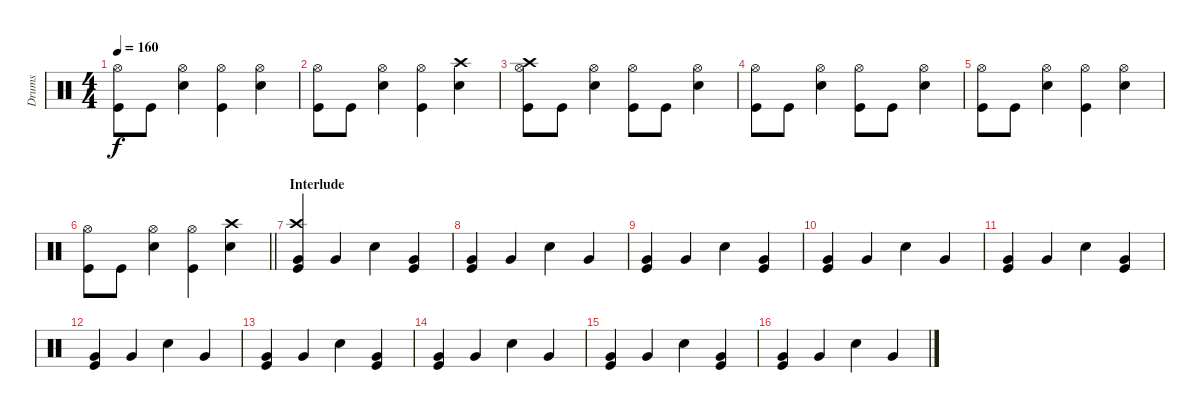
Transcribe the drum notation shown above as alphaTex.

\track ("Drums" "Drums") {instrument percussion}
\staff {score}
\articulation defaults
\ts (4 4)
\tempo 160
\clef neutral
\ks c
("Hi-Hat (open)" "Kick (hit)").8{dy f} "Kick (hit)".8 ("Hi-Hat (open)" "Snare (hit) 2").4 ("Hi-Hat (open)" "Kick (hit)").4 ("Hi-Hat (open)" "Snare (hit) 2").4 |
("Hi-Hat (open)" "Kick (hit)").8 "Kick (hit)".8 ("Hi-Hat (open)" "Snare (hit) 2").4 ("Hi-Hat (open)" "Kick (hit)").4 ("Crash high (hit)" "Snare (hit) 2").4 |
("Crash high (hit)" "Hi-Hat (open)" "Kick (hit)").8 "Kick (hit)".8 ("Hi-Hat (open)" "Snare (hit) 2").4 ("Hi-Hat (open)" "Kick (hit)").8 "Kick (hit)".8 ("Hi-Hat (open)" "Snare (hit) 2").4 |
("Hi-Hat (open)" "Kick (hit)").8 "Kick (hit)".8 ("Hi-Hat (open)" "Snare (hit) 2").4 ("Hi-Hat (open)" "Kick (hit)").8 "Kick (hit)".8 ("Hi-Hat (open)" "Snare (hit) 2").4 |
("Hi-Hat (open)" "Kick (hit)").8 "Kick (hit)".8 ("Hi-Hat (open)" "Snare (hit) 2").4 ("Hi-Hat (open)" "Kick (hit)").4 ("Hi-Hat (open)" "Snare (hit) 2").4 |
\barLineRight lightlight
("Hi-Hat (open)" "Kick (hit)").8 "Kick (hit)".8 ("Hi-Hat (open)" "Snare (hit) 2").4 ("Hi-Hat (open)" "Kick (hit)").4 ("Crash high (hit)" "Snare (hit) 2").4 |
\section ("" "Interlude")
("Crash high (hit)" "Very Low Tom (hit)" "Kick (hit)").4 "Very Low Tom (hit)".4 "Snare (hit) 2".4 ("Very Low Tom (hit)" "Kick (hit)").4 |
("Very Low Tom (hit)" "Kick (hit)").4 "Very Low Tom (hit)".4 "Snare (hit) 2".4 "Very Low Tom (hit)".4 |
("Very Low Tom (hit)" "Kick (hit)").4 "Very Low Tom (hit)".4 "Snare (hit) 2".4 ("Very Low Tom (hit)" "Kick (hit)").4 |
("Very Low Tom (hit)" "Kick (hit)").4 "Very Low Tom (hit)".4 "Snare (hit) 2".4 "Very Low Tom (hit)".4 |
("Very Low Tom (hit)" "Kick (hit)").4 "Very Low Tom (hit)".4 "Snare (hit) 2".4 ("Very Low Tom (hit)" "Kick (hit)").4 |
("Very Low Tom (hit)" "Kick (hit)").4 "Very Low Tom (hit)".4 "Snare (hit) 2".4 "Very Low Tom (hit)".4 |
("Very Low Tom (hit)" "Kick (hit)").4 "Very Low Tom (hit)".4 "Snare (hit) 2".4 ("Very Low Tom (hit)" "Kick (hit)").4 |
("Very Low Tom (hit)" "Kick (hit)").4 "Very Low Tom (hit)".4 "Snare (hit) 2".4 "Very Low Tom (hit)".4 |
("Very Low Tom (hit)" "Kick (hit)").4 "Very Low Tom (hit)".4 "Snare (hit) 2".4 ("Very Low Tom (hit)" "Kick (hit)").4 |
("Very Low Tom (hit)" "Kick (hit)").4 "Very Low Tom (hit)".4 "Snare (hit) 2".4 "Very Low Tom (hit)".4
